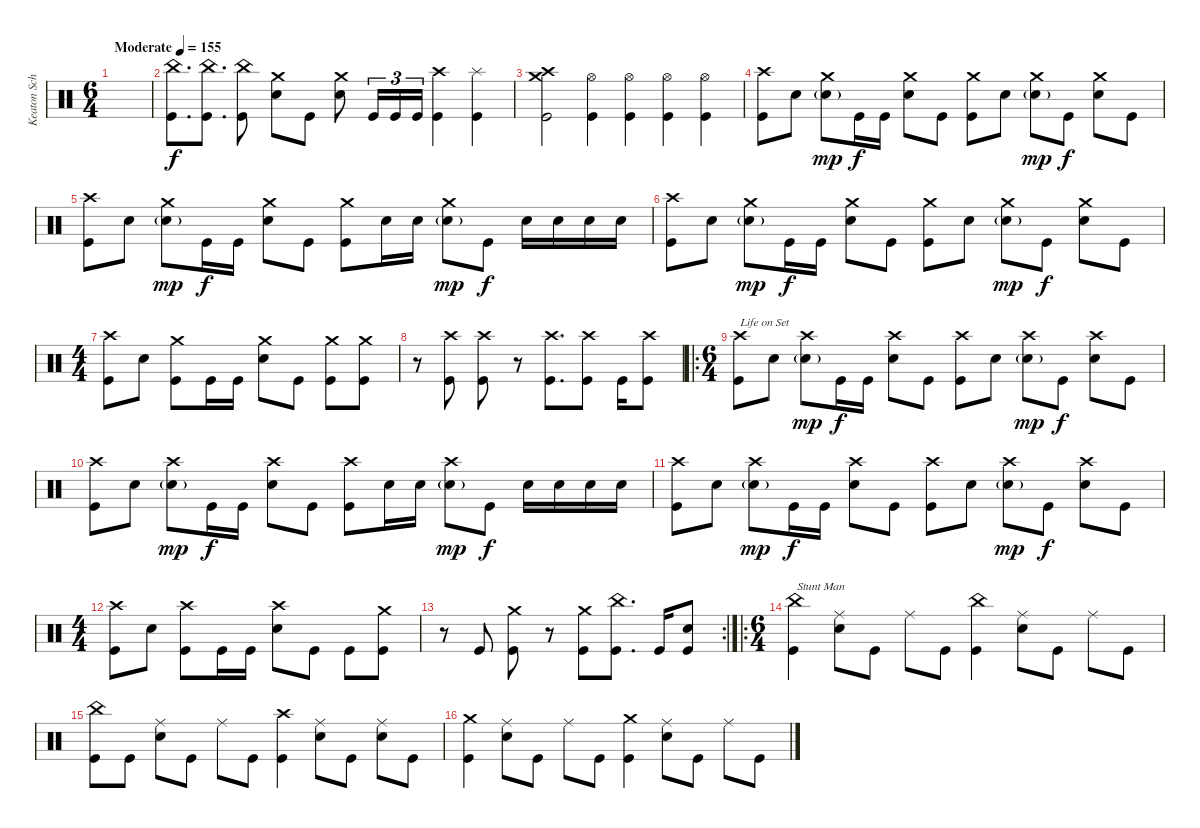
\track ("Keaton Schluchter Drums" "Keaton Sch") {instrument percussion bank 20}
\staff {score}
\articulation defaults
\ts (6 4)
\tempo (155 "Moderate")
\clef neutral
\ks c
|
("China (hit)" "Kick (hit)").8{d} ("China (hit)" "Kick (hit)").8{d} ("China (hit)" "Kick (hit)").8 ("Crash medium (hit)" "Electric Snare (hit)").8 "Kick (hit)".8 ("Crash medium (hit)" "Electric Snare (hit)").8 "Kick (hit)".16{tu (3 2)} "Kick (hit)".16{tu (3 2)} "Kick (hit)".16{tu (3 2)} ("Crash high (hit)" "Kick (hit)").4 ("Splash (hit)" "Kick (hit)").4 |
("Crash medium (hit)" "Crash high (hit)" "Kick (hit)").2 ("Hi-Hat (open)" "Kick (hit)").4 ("Hi-Hat (open)" "Kick (hit)").4 ("Hi-Hat (open)" "Kick (hit)").4 ("Hi-Hat (open)" "Kick (hit)").4 |
("Crash high (hit)" "Kick (hit)").8 "Electric Snare (hit)".8 ("Crash medium (hit)" "Electric Snare (hit)"{g}).8{dy mp} "Kick (hit)".16{dy f} "Kick (hit)".16 ("Crash medium (hit)" "Electric Snare (hit)").8 "Kick (hit)".8 ("Crash medium (hit)" "Kick (hit)").8 "Electric Snare (hit)".8 ("Crash medium (hit)" "Electric Snare (hit)"{g}).8{dy mp} "Kick (hit)".8{dy f} ("Crash medium (hit)" "Electric Snare (hit)").8 "Kick (hit)".8 |
("Crash high (hit)" "Kick (hit)").8 "Electric Snare (hit)".8 ("Crash medium (hit)" "Electric Snare (hit)"{g}).8{dy mp} "Kick (hit)".16{dy f} "Kick (hit)".16 ("Crash medium (hit)" "Electric Snare (hit)").8 "Kick (hit)".8 ("Crash medium (hit)" "Kick (hit)").8 "Electric Snare (hit)".16 "Electric Snare (hit)".16 ("Crash medium (hit)" "Electric Snare (hit)"{g}).8{dy mp} "Kick (hit)".8{dy f} "Electric Snare (hit)".16 "Electric Snare (hit)".16 "Electric Snare (hit)".16 "Electric Snare (hit)".16 |
("Crash high (hit)" "Kick (hit)").8 "Electric Snare (hit)".8 ("Crash medium (hit)" "Electric Snare (hit)"{g}).8{dy mp} "Kick (hit)".16{dy f} "Kick (hit)".16 ("Crash medium (hit)" "Electric Snare (hit)").8 "Kick (hit)".8 ("Crash medium (hit)" "Kick (hit)").8 "Electric Snare (hit)".8 ("Crash medium (hit)" "Electric Snare (hit)"{g}).8{dy mp} "Kick (hit)".8{dy f} ("Crash medium (hit)" "Electric Snare (hit)").8 "Kick (hit)".8 |
\ts (4 4)
("Crash high (hit)" "Kick (hit)").8 "Electric Snare (hit)".8 ("Crash medium (hit)" "Kick (hit)").8 "Kick (hit)".16 "Kick (hit)".16 ("Crash medium (hit)" "Electric Snare (hit)").8 "Kick (hit)".8 ("Crash medium (hit)" "Kick (hit)").8 ("Crash medium (hit)" "Kick (hit)").8 |
r.8 ("Crash high (hit)" "Kick (hit)").8 ("Crash high (hit)" "Kick (hit)").8 r.8 ("Crash high (hit)" "Kick (hit)").8{d} ("Crash high (hit)" "Kick (hit)").8 "Kick (hit)".16 ("Crash high (hit)" "Kick (hit)").8 |
\ro
\ts (6 4)
("Crash high (hit)" "Kick (hit)").8{txt "Life on Set"} "Electric Snare (hit)".8 ("Crash high (hit)" "Electric Snare (hit)"{g}).8{dy mp} "Kick (hit)".16{dy f} "Kick (hit)".16 ("Crash high (hit)" "Electric Snare (hit)").8 "Kick (hit)".8 ("Crash high (hit)" "Kick (hit)").8 "Electric Snare (hit)".8 ("Crash high (hit)" "Electric Snare (hit)"{g}).8{dy mp} "Kick (hit)".8{dy f} ("Crash high (hit)" "Electric Snare (hit)").8 "Kick (hit)".8 |
("Crash high (hit)" "Kick (hit)").8 "Electric Snare (hit)".8 ("Crash high (hit)" "Electric Snare (hit)"{g}).8{dy mp} "Kick (hit)".16{dy f} "Kick (hit)".16 ("Crash high (hit)" "Electric Snare (hit)").8 "Kick (hit)".8 ("Crash high (hit)" "Kick (hit)").8 "Electric Snare (hit)".16 "Electric Snare (hit)".16 ("Crash high (hit)" "Electric Snare (hit)"{g}).8{dy mp} "Kick (hit)".8{dy f} "Electric Snare (hit)".16 "Electric Snare (hit)".16 "Electric Snare (hit)".16 "Electric Snare (hit)".16 |
("Crash high (hit)" "Kick (hit)").8 "Electric Snare (hit)".8 ("Crash high (hit)" "Electric Snare (hit)"{g}).8{dy mp} "Kick (hit)".16{dy f} "Kick (hit)".16 ("Crash high (hit)" "Electric Snare (hit)").8 "Kick (hit)".8 ("Crash high (hit)" "Kick (hit)").8 "Electric Snare (hit)".8 ("Crash high (hit)" "Electric Snare (hit)"{g}).8{dy mp} "Kick (hit)".8{dy f} ("Crash high (hit)" "Electric Snare (hit)").8 "Kick (hit)".8 |
\ts (4 4)
("Crash high (hit)" "Kick (hit)").8 "Electric Snare (hit)".8 ("Crash high (hit)" "Kick (hit)").8 "Kick (hit)".16 "Kick (hit)".16 ("Crash high (hit)" "Electric Snare (hit)").8 "Kick (hit)".8 "Kick (hit)".8 ("Crash medium (hit)" "Kick (hit)").8 |
\rc 2
r.8 "Kick (hit)".8 ("Crash medium (hit)" "Kick (hit)").8 r.8 ("Crash medium (hit)" "Kick (hit)").8 ("China (hit)" "Kick (hit)").8{d} "Kick (hit)".16 ("Electric Snare (hit)" "Kick (hit)").8 |
\ro
\ts (6 4)
("China (hit)" "Kick (hit)").4{txt "Stunt Man"} ("Ride (middle)" "Electric Snare (hit)").8 "Kick (hit)".8 "Ride (middle)".8 "Kick (hit)".8 ("China (hit)" "Kick (hit)").4 ("Ride (middle)" "Electric Snare (hit)").8 "Kick (hit)".8 "Ride (middle)".8 "Kick (hit)".8 |
("China (hit)" "Kick (hit)").8 "Kick (hit)".8 ("Ride (middle)" "Electric Snare (hit)").8 "Kick (hit)".8 "Ride (middle)".8 "Kick (hit)".8 ("Crash high (hit)" "Kick (hit)").4 ("Ride (middle)" "Electric Snare (hit)").8 "Kick (hit)".8 ("Ride (middle)" "Electric Snare (hit)").8 "Kick (hit)".8 |
("Crash medium (hit)" "Kick (hit)").4 ("Ride (middle)" "Electric Snare (hit)").8 "Kick (hit)".8 "Ride (middle)".8 "Kick (hit)".8 ("Crash medium (hit)" "Kick (hit)").4 ("Ride (middle)" "Electric Snare (hit)").8 "Kick (hit)".8 "Ride (middle)".8 "Kick (hit)".8
